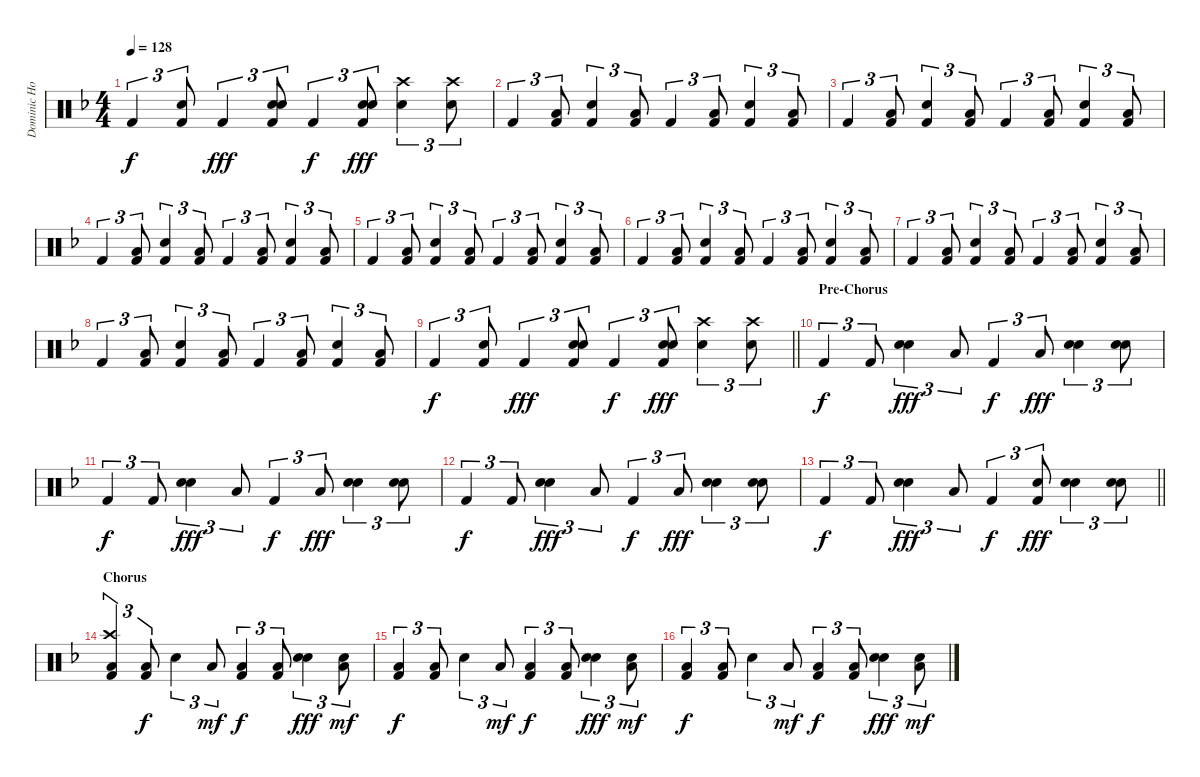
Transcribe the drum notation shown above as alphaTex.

\track ("Dominic Howard Drums" "Dominic Ho") {instrument percussion}
\staff {score}
\articulation defaults
\ts (4 4)
\tempo 128
\clef neutral
\ks dminor "Kick (hit) 2".4{tu (3 2) dy f}
("Snare (hit) 2" "Kick (hit) 2").8{tu (3 2)} "Kick (hit) 2".4{tu (3 2) dy fff} ("Electric Snare (hit)" "Snare (hit) 2" "Kick (hit) 2").8{tu (3 2)} "Kick (hit) 2".4{tu (3 2) dy f} ("Electric Snare (hit)" "Snare (hit) 2" "Kick (hit) 2").8{tu (3 2) dy fff} ("Crash high (hit)" "Snare (hit) 2").4{tu (3 2)} ("Crash high (hit)" "Snare (hit) 2").8{tu (3 2)} |
"Kick (hit) 2".4{tu (3 2)} ("Low Floor Tom (hit)" "Kick (hit) 2").8{tu (3 2)} ("Snare (hit) 2" "Kick (hit) 2").4{tu (3 2)} ("Low Floor Tom (hit)" "Kick (hit) 2").8{tu (3 2)} "Kick (hit) 2".4{tu (3 2)} ("Low Floor Tom (hit)" "Kick (hit) 2").8{tu (3 2)} ("Snare (hit) 2" "Kick (hit) 2").4{tu (3 2)} ("Low Floor Tom (hit)" "Kick (hit) 2").8{tu (3 2)} |
"Kick (hit) 2".4{tu (3 2)} ("Low Floor Tom (hit)" "Kick (hit) 2").8{tu (3 2)} ("Snare (hit) 2" "Kick (hit) 2").4{tu (3 2)} ("Low Floor Tom (hit)" "Kick (hit) 2").8{tu (3 2)} "Kick (hit) 2".4{tu (3 2)} ("Low Floor Tom (hit)" "Kick (hit) 2").8{tu (3 2)} ("Snare (hit) 2" "Kick (hit) 2").4{tu (3 2)} ("Low Floor Tom (hit)" "Kick (hit) 2").8{tu (3 2)} |
"Kick (hit) 2".4{tu (3 2)} ("Low Floor Tom (hit)" "Kick (hit) 2").8{tu (3 2)} ("Snare (hit) 2" "Kick (hit) 2").4{tu (3 2)} ("Low Floor Tom (hit)" "Kick (hit) 2").8{tu (3 2)} "Kick (hit) 2".4{tu (3 2)} ("Low Floor Tom (hit)" "Kick (hit) 2").8{tu (3 2)} ("Snare (hit) 2" "Kick (hit) 2").4{tu (3 2)} ("Low Floor Tom (hit)" "Kick (hit) 2").8{tu (3 2)} |
"Kick (hit) 2".4{tu (3 2)} ("Low Floor Tom (hit)" "Kick (hit) 2").8{tu (3 2)} ("Snare (hit) 2" "Kick (hit) 2").4{tu (3 2)} ("Low Floor Tom (hit)" "Kick (hit) 2").8{tu (3 2)} "Kick (hit) 2".4{tu (3 2)} ("Low Floor Tom (hit)" "Kick (hit) 2").8{tu (3 2)} ("Snare (hit) 2" "Kick (hit) 2").4{tu (3 2)} ("Low Floor Tom (hit)" "Kick (hit) 2").8{tu (3 2)} |
"Kick (hit) 2".4{tu (3 2)} ("Low Floor Tom (hit)" "Kick (hit) 2").8{tu (3 2)} ("Snare (hit) 2" "Kick (hit) 2").4{tu (3 2)} ("Low Floor Tom (hit)" "Kick (hit) 2").8{tu (3 2)} "Kick (hit) 2".4{tu (3 2)} ("Low Floor Tom (hit)" "Kick (hit) 2").8{tu (3 2)} ("Snare (hit) 2" "Kick (hit) 2").4{tu (3 2)} ("Low Floor Tom (hit)" "Kick (hit) 2").8{tu (3 2)} |
"Kick (hit) 2".4{tu (3 2)} ("Low Floor Tom (hit)" "Kick (hit) 2").8{tu (3 2)} ("Snare (hit) 2" "Kick (hit) 2").4{tu (3 2)} ("Low Floor Tom (hit)" "Kick (hit) 2").8{tu (3 2)} "Kick (hit) 2".4{tu (3 2)} ("Low Floor Tom (hit)" "Kick (hit) 2").8{tu (3 2)} ("Snare (hit) 2" "Kick (hit) 2").4{tu (3 2)} ("Low Floor Tom (hit)" "Kick (hit) 2").8{tu (3 2)} |
"Kick (hit) 2".4{tu (3 2)} ("Low Floor Tom (hit)" "Kick (hit) 2").8{tu (3 2)} ("Snare (hit) 2" "Kick (hit) 2").4{tu (3 2)} ("Low Floor Tom (hit)" "Kick (hit) 2").8{tu (3 2)} "Kick (hit) 2".4{tu (3 2)} ("Low Floor Tom (hit)" "Kick (hit) 2").8{tu (3 2)} ("Snare (hit) 2" "Kick (hit) 2").4{tu (3 2)} ("Low Floor Tom (hit)" "Kick (hit) 2").8{tu (3 2)} |
\barLineRight lightlight "Kick (hit) 2".4{tu (3 2) dy f}
("Snare (hit) 2" "Kick (hit) 2").8{tu (3 2)} "Kick (hit) 2".4{tu (3 2) dy fff} ("Electric Snare (hit)" "Snare (hit) 2" "Kick (hit) 2").8{tu (3 2)} "Kick (hit) 2".4{tu (3 2) dy f} ("Electric Snare (hit)" "Snare (hit) 2" "Kick (hit) 2").8{tu (3 2) dy fff} ("Crash high (hit)" "Snare (hit) 2").4{tu (3 2)} ("Crash high (hit)" "Snare (hit) 2").8{tu (3 2)} |
\section ("" "Pre-Chorus")
"Kick (hit) 2".4{tu (3 2) dy f} "Kick (hit) 2".8{tu (3 2)} ("Electric Snare (hit)" "Snare (hit) 2").4{tu (3 2) dy fff} "Low Floor Tom (hit)".8{tu (3 2)} "Kick (hit) 2".4{tu (3 2) dy f} "Low Floor Tom (hit)".8{tu (3 2) dy fff} ("Hand Clap (hit)" "Snare (hit) 2").4{tu (3 2)} ("Hand Clap (hit)" "Snare (hit) 2").8{tu (3 2)} |
"Kick (hit) 2".4{tu (3 2) dy f} "Kick (hit) 2".8{tu (3 2)} ("Electric Snare (hit)" "Snare (hit) 2").4{tu (3 2) dy fff} "Low Floor Tom (hit)".8{tu (3 2)} "Kick (hit) 2".4{tu (3 2) dy f} "Low Floor Tom (hit)".8{tu (3 2) dy fff} ("Hand Clap (hit)" "Snare (hit) 2").4{tu (3 2)} ("Hand Clap (hit)" "Snare (hit) 2").8{tu (3 2)} |
"Kick (hit) 2".4{tu (3 2) dy f} "Kick (hit) 2".8{tu (3 2)} ("Electric Snare (hit)" "Snare (hit) 2").4{tu (3 2) dy fff} "Low Floor Tom (hit)".8{tu (3 2)} "Kick (hit) 2".4{tu (3 2) dy f} "Low Floor Tom (hit)".8{tu (3 2) dy fff} ("Hand Clap (hit)" "Snare (hit) 2").4{tu (3 2)} ("Hand Clap (hit)" "Snare (hit) 2").8{tu (3 2)} |
\barLineRight lightlight "Kick (hit) 2".4{tu (3 2) dy f} "Kick (hit) 2".8{tu (3 2)}
("Electric Snare (hit)" "Snare (hit) 2").4{tu (3 2) dy fff} "Low Floor Tom (hit)".8{tu (3 2)} "Kick (hit) 2".4{tu (3 2) dy f} ("Snare (hit) 2" "Kick (hit) 2").8{tu (3 2) dy fff} ("Hand Clap (hit)" "Snare (hit) 2").4{tu (3 2)} ("Hand Clap (hit)" "Snare (hit) 2").8{tu (3 2)} |
\section ("" "Chorus")
("Crash high (hit)" "Low Floor Tom (hit)" "Kick (hit) 2").4{tu (3 2)} ("Low Floor Tom (hit)" "Kick (hit) 2").8{tu (3 2) dy f} "Snare (hit) 2".4{tu (3 2)} "Low Tom (hit)".8{tu (3 2) dy mf} ("Low Floor Tom (hit)" "Kick (hit) 2").4{tu (3 2) dy f} ("Low Floor Tom (hit)" "Kick (hit) 2").8{tu (3 2)} ("Hand Clap (hit)" "Snare (hit) 2").4{tu (3 2) dy fff} ("Hand Clap (hit)" "Low Tom (hit)").8{tu (3 2) dy mf} |
("Low Floor Tom (hit)" "Kick (hit) 2").4{tu (3 2) dy f} ("Low Floor Tom (hit)" "Kick (hit) 2").8{tu (3 2)} "Snare (hit) 2".4{tu (3 2)} "Low Tom (hit)".8{tu (3 2) dy mf} ("Low Floor Tom (hit)" "Kick (hit) 2").4{tu (3 2) dy f} ("Low Floor Tom (hit)" "Kick (hit) 2").8{tu (3 2)} ("Hand Clap (hit)" "Snare (hit) 2").4{tu (3 2) dy fff} ("Hand Clap (hit)" "Low Tom (hit)").8{tu (3 2) dy mf} |
("Low Floor Tom (hit)" "Kick (hit) 2").4{tu (3 2) dy f} ("Low Floor Tom (hit)" "Kick (hit) 2").8{tu (3 2)} "Snare (hit) 2".4{tu (3 2)} "Low Tom (hit)".8{tu (3 2) dy mf} ("Low Floor Tom (hit)" "Kick (hit) 2").4{tu (3 2) dy f} ("Low Floor Tom (hit)" "Kick (hit) 2").8{tu (3 2)} ("Hand Clap (hit)" "Snare (hit) 2").4{tu (3 2) dy fff} ("Hand Clap (hit)" "Low Tom (hit)").8{tu (3 2) dy mf}
